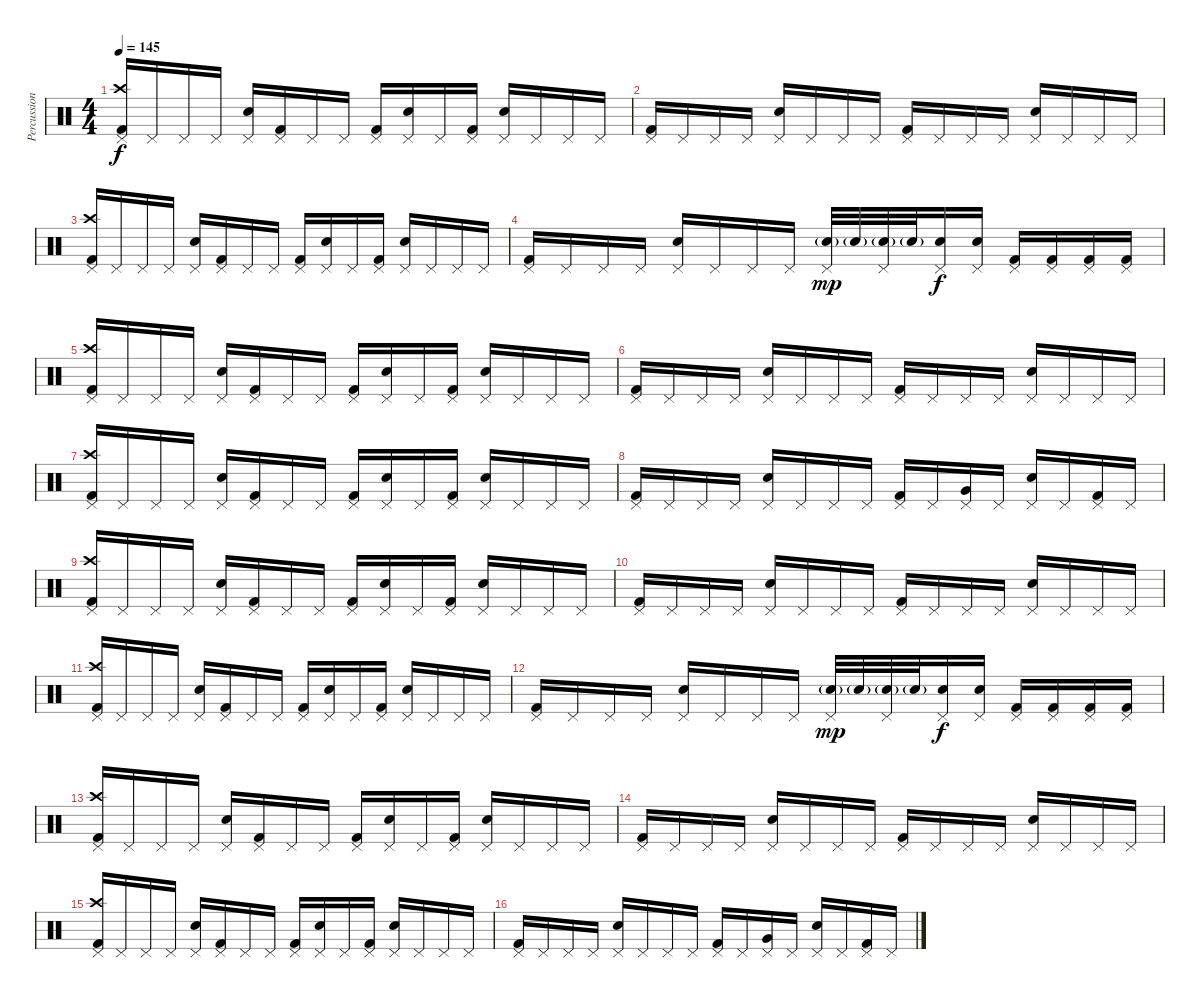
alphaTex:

\track ("Percussion" "Percussion") {instrument percussion}
\staff {score}
\articulation defaults
\ts (4 4)
\tempo 145
\clef neutral
\ks c
("Pedal Hi-Hat (hit)" "Crash high (hit)" "Kick (hit) 2").16{dy f} "Pedal Hi-Hat (hit)".16 "Pedal Hi-Hat (hit)".16 "Pedal Hi-Hat (hit)".16 ("Pedal Hi-Hat (hit)" "Electric Snare (hit)").16 ("Pedal Hi-Hat (hit)" "Kick (hit) 2").16 "Pedal Hi-Hat (hit)".16 "Pedal Hi-Hat (hit)".16 ("Pedal Hi-Hat (hit)" "Kick (hit) 2").16 ("Pedal Hi-Hat (hit)" "Electric Snare (hit)").16 "Pedal Hi-Hat (hit)".16 ("Pedal Hi-Hat (hit)" "Kick (hit) 2").16 ("Pedal Hi-Hat (hit)" "Electric Snare (hit)").16 "Pedal Hi-Hat (hit)".16 "Pedal Hi-Hat (hit)".16 "Pedal Hi-Hat (hit)".16 |
("Pedal Hi-Hat (hit)" "Kick (hit) 2").16 "Pedal Hi-Hat (hit)".16 "Pedal Hi-Hat (hit)".16 "Pedal Hi-Hat (hit)".16 ("Pedal Hi-Hat (hit)" "Electric Snare (hit)").16 "Pedal Hi-Hat (hit)".16 "Pedal Hi-Hat (hit)".16 "Pedal Hi-Hat (hit)".16 ("Pedal Hi-Hat (hit)" "Kick (hit) 2").16 "Pedal Hi-Hat (hit)".16 "Pedal Hi-Hat (hit)".16 "Pedal Hi-Hat (hit)".16 ("Pedal Hi-Hat (hit)" "Electric Snare (hit)").16 "Pedal Hi-Hat (hit)".16 "Pedal Hi-Hat (hit)".16 "Pedal Hi-Hat (hit)".16 |
("Pedal Hi-Hat (hit)" "Crash high (hit)" "Kick (hit) 2").16 "Pedal Hi-Hat (hit)".16 "Pedal Hi-Hat (hit)".16 "Pedal Hi-Hat (hit)".16 ("Pedal Hi-Hat (hit)" "Electric Snare (hit)").16 ("Pedal Hi-Hat (hit)" "Kick (hit) 2").16 "Pedal Hi-Hat (hit)".16 "Pedal Hi-Hat (hit)".16 ("Pedal Hi-Hat (hit)" "Kick (hit) 2").16 ("Pedal Hi-Hat (hit)" "Electric Snare (hit)").16 "Pedal Hi-Hat (hit)".16 ("Pedal Hi-Hat (hit)" "Kick (hit) 2").16 ("Pedal Hi-Hat (hit)" "Electric Snare (hit)").16 "Pedal Hi-Hat (hit)".16 "Pedal Hi-Hat (hit)".16 "Pedal Hi-Hat (hit)".16 |
("Pedal Hi-Hat (hit)" "Kick (hit) 2").16 "Pedal Hi-Hat (hit)".16 "Pedal Hi-Hat (hit)".16 "Pedal Hi-Hat (hit)".16 ("Pedal Hi-Hat (hit)" "Electric Snare (hit)").16 "Pedal Hi-Hat (hit)".16 "Pedal Hi-Hat (hit)".16 "Pedal Hi-Hat (hit)".16 ("Pedal Hi-Hat (hit)" "Electric Snare (hit)"{g}).32{dy mp} "Electric Snare (hit)"{g}.32 ("Pedal Hi-Hat (hit)" "Electric Snare (hit)"{g}).32 "Electric Snare (hit)"{g}.32 ("Pedal Hi-Hat (hit)" "Electric Snare (hit)").16{dy f} ("Pedal Hi-Hat (hit)" "Electric Snare (hit)").16 ("Pedal Hi-Hat (hit)" "Kick (hit) 2").16 ("Pedal Hi-Hat (hit)" "Kick (hit) 2").16 ("Pedal Hi-Hat (hit)" "Kick (hit) 2").16 ("Pedal Hi-Hat (hit)" "Kick (hit) 2").16 |
("Pedal Hi-Hat (hit)" "Crash high (hit)" "Kick (hit) 2").16 "Pedal Hi-Hat (hit)".16 "Pedal Hi-Hat (hit)".16 "Pedal Hi-Hat (hit)".16 ("Pedal Hi-Hat (hit)" "Electric Snare (hit)").16 ("Pedal Hi-Hat (hit)" "Kick (hit) 2").16 "Pedal Hi-Hat (hit)".16 "Pedal Hi-Hat (hit)".16 ("Pedal Hi-Hat (hit)" "Kick (hit) 2").16 ("Pedal Hi-Hat (hit)" "Electric Snare (hit)").16 "Pedal Hi-Hat (hit)".16 ("Pedal Hi-Hat (hit)" "Kick (hit) 2").16 ("Pedal Hi-Hat (hit)" "Electric Snare (hit)").16 "Pedal Hi-Hat (hit)".16 "Pedal Hi-Hat (hit)".16 "Pedal Hi-Hat (hit)".16 |
("Pedal Hi-Hat (hit)" "Kick (hit) 2").16 "Pedal Hi-Hat (hit)".16 "Pedal Hi-Hat (hit)".16 "Pedal Hi-Hat (hit)".16 ("Pedal Hi-Hat (hit)" "Electric Snare (hit)").16 "Pedal Hi-Hat (hit)".16 "Pedal Hi-Hat (hit)".16 "Pedal Hi-Hat (hit)".16 ("Pedal Hi-Hat (hit)" "Kick (hit) 2").16 "Pedal Hi-Hat (hit)".16 "Pedal Hi-Hat (hit)".16 "Pedal Hi-Hat (hit)".16 ("Pedal Hi-Hat (hit)" "Electric Snare (hit)").16 "Pedal Hi-Hat (hit)".16 "Pedal Hi-Hat (hit)".16 "Pedal Hi-Hat (hit)".16 |
("Pedal Hi-Hat (hit)" "Crash high (hit)" "Kick (hit) 2").16 "Pedal Hi-Hat (hit)".16 "Pedal Hi-Hat (hit)".16 "Pedal Hi-Hat (hit)".16 ("Pedal Hi-Hat (hit)" "Electric Snare (hit)").16 ("Pedal Hi-Hat (hit)" "Kick (hit) 2").16 "Pedal Hi-Hat (hit)".16 "Pedal Hi-Hat (hit)".16 ("Pedal Hi-Hat (hit)" "Kick (hit) 2").16 ("Pedal Hi-Hat (hit)" "Electric Snare (hit)").16 "Pedal Hi-Hat (hit)".16 ("Pedal Hi-Hat (hit)" "Kick (hit) 2").16 ("Pedal Hi-Hat (hit)" "Electric Snare (hit)").16 "Pedal Hi-Hat (hit)".16 "Pedal Hi-Hat (hit)".16 "Pedal Hi-Hat (hit)".16 |
("Pedal Hi-Hat (hit)" "Kick (hit) 2").16 "Pedal Hi-Hat (hit)".16 "Pedal Hi-Hat (hit)".16 "Pedal Hi-Hat (hit)".16 ("Pedal Hi-Hat (hit)" "Electric Snare (hit)").16 "Pedal Hi-Hat (hit)".16 "Pedal Hi-Hat (hit)".16 "Pedal Hi-Hat (hit)".16 ("Pedal Hi-Hat (hit)" "Kick (hit) 2").16 "Pedal Hi-Hat (hit)".16 ("Pedal Hi-Hat (hit)" "Very Low Tom (hit)").16 "Pedal Hi-Hat (hit)".16 ("Pedal Hi-Hat (hit)" "Electric Snare (hit)").16 "Pedal Hi-Hat (hit)".16 ("Pedal Hi-Hat (hit)" "Kick (hit) 2").16 "Pedal Hi-Hat (hit)".16 |
("Pedal Hi-Hat (hit)" "Crash high (hit)" "Kick (hit) 2").16 "Pedal Hi-Hat (hit)".16 "Pedal Hi-Hat (hit)".16 "Pedal Hi-Hat (hit)".16 ("Pedal Hi-Hat (hit)" "Electric Snare (hit)").16 ("Pedal Hi-Hat (hit)" "Kick (hit) 2").16 "Pedal Hi-Hat (hit)".16 "Pedal Hi-Hat (hit)".16 ("Pedal Hi-Hat (hit)" "Kick (hit) 2").16 ("Pedal Hi-Hat (hit)" "Electric Snare (hit)").16 "Pedal Hi-Hat (hit)".16 ("Pedal Hi-Hat (hit)" "Kick (hit) 2").16 ("Pedal Hi-Hat (hit)" "Electric Snare (hit)").16 "Pedal Hi-Hat (hit)".16 "Pedal Hi-Hat (hit)".16 "Pedal Hi-Hat (hit)".16 |
("Pedal Hi-Hat (hit)" "Kick (hit) 2").16 "Pedal Hi-Hat (hit)".16 "Pedal Hi-Hat (hit)".16 "Pedal Hi-Hat (hit)".16 ("Pedal Hi-Hat (hit)" "Electric Snare (hit)").16 "Pedal Hi-Hat (hit)".16 "Pedal Hi-Hat (hit)".16 "Pedal Hi-Hat (hit)".16 ("Pedal Hi-Hat (hit)" "Kick (hit) 2").16 "Pedal Hi-Hat (hit)".16 "Pedal Hi-Hat (hit)".16 "Pedal Hi-Hat (hit)".16 ("Pedal Hi-Hat (hit)" "Electric Snare (hit)").16 "Pedal Hi-Hat (hit)".16 "Pedal Hi-Hat (hit)".16 "Pedal Hi-Hat (hit)".16 |
("Pedal Hi-Hat (hit)" "Crash high (hit)" "Kick (hit) 2").16 "Pedal Hi-Hat (hit)".16 "Pedal Hi-Hat (hit)".16 "Pedal Hi-Hat (hit)".16 ("Pedal Hi-Hat (hit)" "Electric Snare (hit)").16 ("Pedal Hi-Hat (hit)" "Kick (hit) 2").16 "Pedal Hi-Hat (hit)".16 "Pedal Hi-Hat (hit)".16 ("Pedal Hi-Hat (hit)" "Kick (hit) 2").16 ("Pedal Hi-Hat (hit)" "Electric Snare (hit)").16 "Pedal Hi-Hat (hit)".16 ("Pedal Hi-Hat (hit)" "Kick (hit) 2").16 ("Pedal Hi-Hat (hit)" "Electric Snare (hit)").16 "Pedal Hi-Hat (hit)".16 "Pedal Hi-Hat (hit)".16 "Pedal Hi-Hat (hit)".16 |
("Pedal Hi-Hat (hit)" "Kick (hit) 2").16 "Pedal Hi-Hat (hit)".16 "Pedal Hi-Hat (hit)".16 "Pedal Hi-Hat (hit)".16 ("Pedal Hi-Hat (hit)" "Electric Snare (hit)").16 "Pedal Hi-Hat (hit)".16 "Pedal Hi-Hat (hit)".16 "Pedal Hi-Hat (hit)".16 ("Pedal Hi-Hat (hit)" "Electric Snare (hit)"{g}).32{dy mp} "Electric Snare (hit)"{g}.32 ("Pedal Hi-Hat (hit)" "Electric Snare (hit)"{g}).32 "Electric Snare (hit)"{g}.32 ("Pedal Hi-Hat (hit)" "Electric Snare (hit)").16{dy f} ("Pedal Hi-Hat (hit)" "Electric Snare (hit)").16 ("Pedal Hi-Hat (hit)" "Kick (hit) 2").16 ("Pedal Hi-Hat (hit)" "Kick (hit) 2").16 ("Pedal Hi-Hat (hit)" "Kick (hit) 2").16 ("Pedal Hi-Hat (hit)" "Kick (hit) 2").16 |
("Pedal Hi-Hat (hit)" "Crash high (hit)" "Kick (hit) 2").16 "Pedal Hi-Hat (hit)".16 "Pedal Hi-Hat (hit)".16 "Pedal Hi-Hat (hit)".16 ("Pedal Hi-Hat (hit)" "Electric Snare (hit)").16 ("Pedal Hi-Hat (hit)" "Kick (hit) 2").16 "Pedal Hi-Hat (hit)".16 "Pedal Hi-Hat (hit)".16 ("Pedal Hi-Hat (hit)" "Kick (hit) 2").16 ("Pedal Hi-Hat (hit)" "Electric Snare (hit)").16 "Pedal Hi-Hat (hit)".16 ("Pedal Hi-Hat (hit)" "Kick (hit) 2").16 ("Pedal Hi-Hat (hit)" "Electric Snare (hit)").16 "Pedal Hi-Hat (hit)".16 "Pedal Hi-Hat (hit)".16 "Pedal Hi-Hat (hit)".16 |
("Pedal Hi-Hat (hit)" "Kick (hit) 2").16 "Pedal Hi-Hat (hit)".16 "Pedal Hi-Hat (hit)".16 "Pedal Hi-Hat (hit)".16 ("Pedal Hi-Hat (hit)" "Electric Snare (hit)").16 "Pedal Hi-Hat (hit)".16 "Pedal Hi-Hat (hit)".16 "Pedal Hi-Hat (hit)".16 ("Pedal Hi-Hat (hit)" "Kick (hit) 2").16 "Pedal Hi-Hat (hit)".16 "Pedal Hi-Hat (hit)".16 "Pedal Hi-Hat (hit)".16 ("Pedal Hi-Hat (hit)" "Electric Snare (hit)").16 "Pedal Hi-Hat (hit)".16 "Pedal Hi-Hat (hit)".16 "Pedal Hi-Hat (hit)".16 |
("Pedal Hi-Hat (hit)" "Crash high (hit)" "Kick (hit) 2").16 "Pedal Hi-Hat (hit)".16 "Pedal Hi-Hat (hit)".16 "Pedal Hi-Hat (hit)".16 ("Pedal Hi-Hat (hit)" "Electric Snare (hit)").16 ("Pedal Hi-Hat (hit)" "Kick (hit) 2").16 "Pedal Hi-Hat (hit)".16 "Pedal Hi-Hat (hit)".16 ("Pedal Hi-Hat (hit)" "Kick (hit) 2").16 ("Pedal Hi-Hat (hit)" "Electric Snare (hit)").16 "Pedal Hi-Hat (hit)".16 ("Pedal Hi-Hat (hit)" "Kick (hit) 2").16 ("Pedal Hi-Hat (hit)" "Electric Snare (hit)").16 "Pedal Hi-Hat (hit)".16 "Pedal Hi-Hat (hit)".16 "Pedal Hi-Hat (hit)".16 |
("Pedal Hi-Hat (hit)" "Kick (hit) 2").16 "Pedal Hi-Hat (hit)".16 "Pedal Hi-Hat (hit)".16 "Pedal Hi-Hat (hit)".16 ("Pedal Hi-Hat (hit)" "Electric Snare (hit)").16 "Pedal Hi-Hat (hit)".16 "Pedal Hi-Hat (hit)".16 "Pedal Hi-Hat (hit)".16 ("Pedal Hi-Hat (hit)" "Kick (hit) 2").16 "Pedal Hi-Hat (hit)".16 ("Pedal Hi-Hat (hit)" "Very Low Tom (hit)").16 "Pedal Hi-Hat (hit)".16 ("Pedal Hi-Hat (hit)" "Electric Snare (hit)").16 "Pedal Hi-Hat (hit)".16 ("Pedal Hi-Hat (hit)" "Kick (hit) 2").16 "Pedal Hi-Hat (hit)".16
